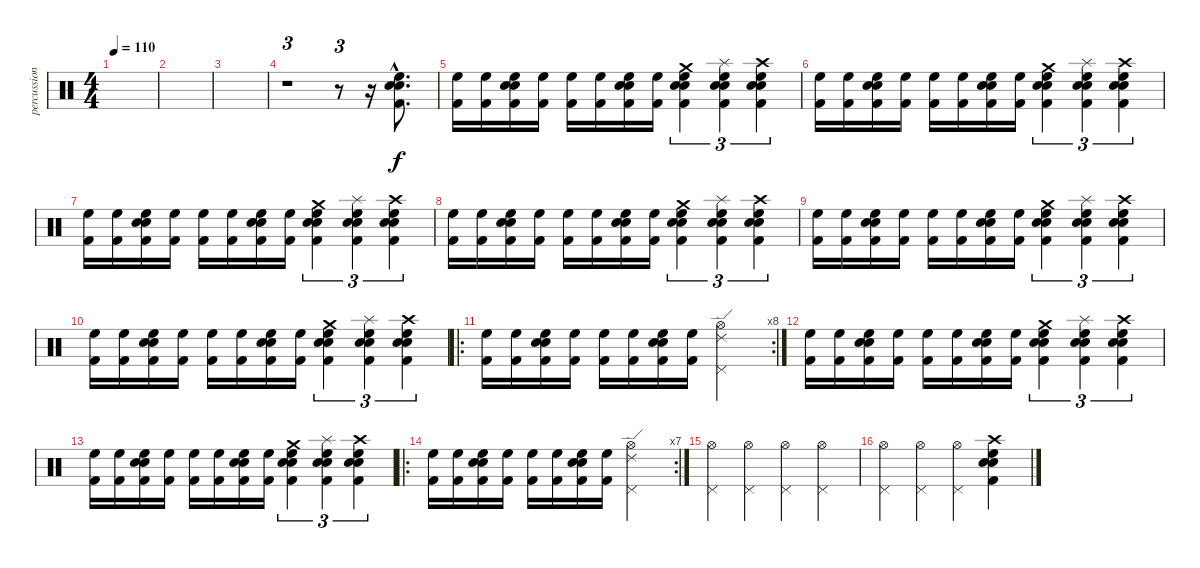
\track ("percussion" "percussion") {instrument percussion}
\staff {score}
\articulation defaults
\ts (4 4)
\tempo 110
\clef neutral
\ks c
|
|
|
r.1{tu (3 2)} r.8{tu (3 2)} r.16 ("Electric Snare (hit)"{hac} "Snare (hit) 2"{hac} "Kick (hit) 2"{hac} "High Floor Tom (hit)"{hac}).8{d} |
("Kick (hit) 2" "High Floor Tom (hit)").16 ("Kick (hit) 2" "High Floor Tom (hit)").16 ("Electric Snare (hit)" "Snare (hit) 2" "Kick (hit) 2" "High Floor Tom (hit)").16 ("Kick (hit) 2" "High Floor Tom (hit)").16 ("Kick (hit) 2" "High Floor Tom (hit)").16 ("Kick (hit) 2" "High Floor Tom (hit)").16 ("Electric Snare (hit)" "Snare (hit) 2" "Kick (hit) 2" "High Floor Tom (hit)").16 ("Kick (hit) 2" "High Floor Tom (hit)").16 ("Crash medium (hit)" "Electric Snare (hit)" "Snare (hit) 2" "Kick (hit) 2" "High Floor Tom (hit)").4{tu (3 2)} ("Splash (hit)" "Electric Snare (hit)" "Snare (hit) 2" "Kick (hit) 2" "High Floor Tom (hit)").4{tu (3 2)} ("Crash high (hit)" "Electric Snare (hit)" "Snare (hit) 2" "Kick (hit) 2" "High Floor Tom (hit)").4{tu (3 2)} |
("Kick (hit) 2" "High Floor Tom (hit)").16 ("Kick (hit) 2" "High Floor Tom (hit)").16 ("Electric Snare (hit)" "Snare (hit) 2" "Kick (hit) 2" "High Floor Tom (hit)").16 ("Kick (hit) 2" "High Floor Tom (hit)").16 ("Kick (hit) 2" "High Floor Tom (hit)").16 ("Kick (hit) 2" "High Floor Tom (hit)").16 ("Electric Snare (hit)" "Snare (hit) 2" "Kick (hit) 2" "High Floor Tom (hit)").16 ("Kick (hit) 2" "High Floor Tom (hit)").16 ("Crash medium (hit)" "Electric Snare (hit)" "Snare (hit) 2" "Kick (hit) 2" "High Floor Tom (hit)").4{tu (3 2)} ("Splash (hit)" "Electric Snare (hit)" "Snare (hit) 2" "Kick (hit) 2" "High Floor Tom (hit)").4{tu (3 2)} ("Crash high (hit)" "Electric Snare (hit)" "Snare (hit) 2" "Kick (hit) 2" "High Floor Tom (hit)").4{tu (3 2)} |
("Kick (hit) 2" "High Floor Tom (hit)").16 ("Kick (hit) 2" "High Floor Tom (hit)").16 ("Electric Snare (hit)" "Snare (hit) 2" "Kick (hit) 2" "High Floor Tom (hit)").16 ("Kick (hit) 2" "High Floor Tom (hit)").16 ("Kick (hit) 2" "High Floor Tom (hit)").16 ("Kick (hit) 2" "High Floor Tom (hit)").16 ("Electric Snare (hit)" "Snare (hit) 2" "Kick (hit) 2" "High Floor Tom (hit)").16 ("Kick (hit) 2" "High Floor Tom (hit)").16 ("Crash medium (hit)" "Electric Snare (hit)" "Snare (hit) 2" "Kick (hit) 2" "High Floor Tom (hit)").4{tu (3 2)} ("Splash (hit)" "Electric Snare (hit)" "Snare (hit) 2" "Kick (hit) 2" "High Floor Tom (hit)").4{tu (3 2)} ("Crash high (hit)" "Electric Snare (hit)" "Snare (hit) 2" "Kick (hit) 2" "High Floor Tom (hit)").4{tu (3 2)} |
("Kick (hit) 2" "High Floor Tom (hit)").16 ("Kick (hit) 2" "High Floor Tom (hit)").16 ("Electric Snare (hit)" "Snare (hit) 2" "Kick (hit) 2" "High Floor Tom (hit)").16 ("Kick (hit) 2" "High Floor Tom (hit)").16 ("Kick (hit) 2" "High Floor Tom (hit)").16 ("Kick (hit) 2" "High Floor Tom (hit)").16 ("Electric Snare (hit)" "Snare (hit) 2" "Kick (hit) 2" "High Floor Tom (hit)").16 ("Kick (hit) 2" "High Floor Tom (hit)").16 ("Crash medium (hit)" "Electric Snare (hit)" "Snare (hit) 2" "Kick (hit) 2" "High Floor Tom (hit)").4{tu (3 2)} ("Splash (hit)" "Electric Snare (hit)" "Snare (hit) 2" "Kick (hit) 2" "High Floor Tom (hit)").4{tu (3 2)} ("Crash high (hit)" "Electric Snare (hit)" "Snare (hit) 2" "Kick (hit) 2" "High Floor Tom (hit)").4{tu (3 2)} |
("Kick (hit) 2" "High Floor Tom (hit)").16 ("Kick (hit) 2" "High Floor Tom (hit)").16 ("Electric Snare (hit)" "Snare (hit) 2" "Kick (hit) 2" "High Floor Tom (hit)").16 ("Kick (hit) 2" "High Floor Tom (hit)").16 ("Kick (hit) 2" "High Floor Tom (hit)").16 ("Kick (hit) 2" "High Floor Tom (hit)").16 ("Electric Snare (hit)" "Snare (hit) 2" "Kick (hit) 2" "High Floor Tom (hit)").16 ("Kick (hit) 2" "High Floor Tom (hit)").16 ("Crash medium (hit)" "Electric Snare (hit)" "Snare (hit) 2" "Kick (hit) 2" "High Floor Tom (hit)").4{tu (3 2)} ("Splash (hit)" "Electric Snare (hit)" "Snare (hit) 2" "Kick (hit) 2" "High Floor Tom (hit)").4{tu (3 2)} ("Crash high (hit)" "Electric Snare (hit)" "Snare (hit) 2" "Kick (hit) 2" "High Floor Tom (hit)").4{tu (3 2)} |
("Kick (hit) 2" "High Floor Tom (hit)").16 ("Kick (hit) 2" "High Floor Tom (hit)").16 ("Electric Snare (hit)" "Snare (hit) 2" "Kick (hit) 2" "High Floor Tom (hit)").16 ("Kick (hit) 2" "High Floor Tom (hit)").16 ("Kick (hit) 2" "High Floor Tom (hit)").16 ("Kick (hit) 2" "High Floor Tom (hit)").16 ("Electric Snare (hit)" "Snare (hit) 2" "Kick (hit) 2" "High Floor Tom (hit)").16 ("Kick (hit) 2" "High Floor Tom (hit)").16 ("Crash medium (hit)" "Electric Snare (hit)" "Snare (hit) 2" "Kick (hit) 2" "High Floor Tom (hit)").4{tu (3 2)} ("Splash (hit)" "Electric Snare (hit)" "Snare (hit) 2" "Kick (hit) 2" "High Floor Tom (hit)").4{tu (3 2)} ("Crash high (hit)" "Electric Snare (hit)" "Snare (hit) 2" "Kick (hit) 2" "High Floor Tom (hit)").4{tu (3 2)} |
\ro
\rc 8
("Kick (hit) 2" "High Floor Tom (hit)").16 ("Kick (hit) 2" "High Floor Tom (hit)").16 ("Electric Snare (hit)" "Snare (hit) 2" "Kick (hit) 2" "High Floor Tom (hit)").16 ("Kick (hit) 2" "High Floor Tom (hit)").16 ("Kick (hit) 2" "High Floor Tom (hit)").16 ("Kick (hit) 2" "High Floor Tom (hit)").16 ("Electric Snare (hit)" "Snare (hit) 2" "Kick (hit) 2" "High Floor Tom (hit)").16 ("Kick (hit) 2" "High Floor Tom (hit)").16 ("Ride (edge) 2" "Pedal Hi-Hat (hit)" "Hi-Hat (open)").2 |
("Kick (hit) 2" "High Floor Tom (hit)").16 ("Kick (hit) 2" "High Floor Tom (hit)").16 ("Electric Snare (hit)" "Snare (hit) 2" "Kick (hit) 2" "High Floor Tom (hit)").16 ("Kick (hit) 2" "High Floor Tom (hit)").16 ("Kick (hit) 2" "High Floor Tom (hit)").16 ("Kick (hit) 2" "High Floor Tom (hit)").16 ("Electric Snare (hit)" "Snare (hit) 2" "Kick (hit) 2" "High Floor Tom (hit)").16 ("Kick (hit) 2" "High Floor Tom (hit)").16 ("Crash medium (hit)" "Electric Snare (hit)" "Snare (hit) 2" "Kick (hit) 2" "High Floor Tom (hit)").4{tu (3 2)} ("Splash (hit)" "Electric Snare (hit)" "Snare (hit) 2" "Kick (hit) 2" "High Floor Tom (hit)").4{tu (3 2)} ("Crash high (hit)" "Electric Snare (hit)" "Snare (hit) 2" "Kick (hit) 2" "High Floor Tom (hit)").4{tu (3 2)} |
("Kick (hit) 2" "High Floor Tom (hit)").16 ("Kick (hit) 2" "High Floor Tom (hit)").16 ("Electric Snare (hit)" "Snare (hit) 2" "Kick (hit) 2" "High Floor Tom (hit)").16 ("Kick (hit) 2" "High Floor Tom (hit)").16 ("Kick (hit) 2" "High Floor Tom (hit)").16 ("Kick (hit) 2" "High Floor Tom (hit)").16 ("Electric Snare (hit)" "Snare (hit) 2" "Kick (hit) 2" "High Floor Tom (hit)").16 ("Kick (hit) 2" "High Floor Tom (hit)").16 ("Crash medium (hit)" "Electric Snare (hit)" "Snare (hit) 2" "Kick (hit) 2" "High Floor Tom (hit)").4{tu (3 2)} ("Splash (hit)" "Electric Snare (hit)" "Snare (hit) 2" "Kick (hit) 2" "High Floor Tom (hit)").4{tu (3 2)} ("Crash high (hit)" "Electric Snare (hit)" "Snare (hit) 2" "Kick (hit) 2" "High Floor Tom (hit)").4{tu (3 2)} |
\ro
\rc 7
("Kick (hit) 2" "High Floor Tom (hit)").16 ("Kick (hit) 2" "High Floor Tom (hit)").16 ("Electric Snare (hit)" "Snare (hit) 2" "Kick (hit) 2" "High Floor Tom (hit)").16 ("Kick (hit) 2" "High Floor Tom (hit)").16 ("Kick (hit) 2" "High Floor Tom (hit)").16 ("Kick (hit) 2" "High Floor Tom (hit)").16 ("Electric Snare (hit)" "Snare (hit) 2" "Kick (hit) 2" "High Floor Tom (hit)").16 ("Kick (hit) 2" "High Floor Tom (hit)").16 ("Ride (edge) 2" "Pedal Hi-Hat (hit)" "Hi-Hat (open)").2 |
("Hi-Hat (open)" "Pedal Hi-Hat (hit)").4 ("Hi-Hat (open)" "Pedal Hi-Hat (hit)").4 ("Hi-Hat (open)" "Pedal Hi-Hat (hit)").4 ("Hi-Hat (open)" "Pedal Hi-Hat (hit)").4 |
("Hi-Hat (open)" "Pedal Hi-Hat (hit)").4 ("Hi-Hat (open)" "Pedal Hi-Hat (hit)").4 ("Hi-Hat (open)" "Pedal Hi-Hat (hit)").4 ("Crash high (hit)" "Electric Snare (hit)" "Snare (hit) 2" "Kick (hit) 2" "High Floor Tom (hit)").4
